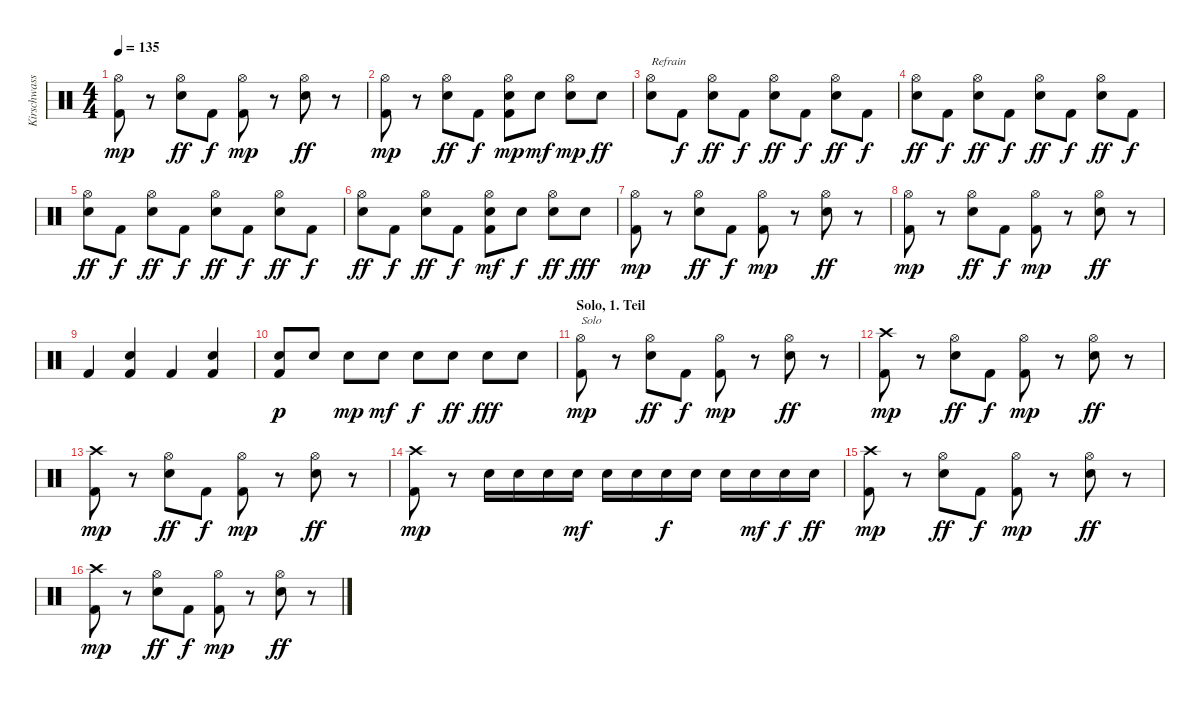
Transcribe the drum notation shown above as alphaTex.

\track ("Kirschwasserkönig" "Kirschwass") {instrument percussion}
\staff {score}
\articulation defaults
\ts (4 4)
\tempo 135
\clef neutral
\ks c
("Hi-Hat (open)" "Kick (hit) 2").8{dy mp} r.8 ("Hi-Hat (open)" "Electric Snare (hit)").8{dy ff} "Kick (hit) 2".8{dy f} ("Hi-Hat (open)" "Kick (hit) 2").8{dy mp} r.8 ("Hi-Hat (open)" "Electric Snare (hit)").8{dy ff} r.8 |
("Hi-Hat (open)" "Kick (hit) 2").8{dy mp} r.8 ("Hi-Hat (open)" "Electric Snare (hit)").8{dy ff} "Kick (hit) 2".8{dy f} ("Hi-Hat (open)" "Kick (hit) 2" "Electric Snare (hit)").8{dy mp} "Electric Snare (hit)".8{dy mf} ("Hi-Hat (open)" "Electric Snare (hit)").8{dy mp} "Electric Snare (hit)".8{dy ff} |
("Hi-Hat (open)" "Electric Snare (hit)").8{txt "Refrain"} "Kick (hit) 2".8{dy f} ("Hi-Hat (open)" "Electric Snare (hit)").8{dy ff} "Kick (hit) 2".8{dy f} ("Hi-Hat (open)" "Electric Snare (hit)").8{dy ff} "Kick (hit) 2".8{dy f} ("Hi-Hat (open)" "Electric Snare (hit)").8{dy ff} "Kick (hit) 2".8{dy f} |
("Hi-Hat (open)" "Electric Snare (hit)").8{dy ff} "Kick (hit) 2".8{dy f} ("Hi-Hat (open)" "Electric Snare (hit)").8{dy ff} "Kick (hit) 2".8{dy f} ("Hi-Hat (open)" "Electric Snare (hit)").8{dy ff} "Kick (hit) 2".8{dy f} ("Hi-Hat (open)" "Electric Snare (hit)").8{dy ff} "Kick (hit) 2".8{dy f} |
("Hi-Hat (open)" "Electric Snare (hit)").8{dy ff} "Kick (hit) 2".8{dy f} ("Hi-Hat (open)" "Electric Snare (hit)").8{dy ff} "Kick (hit) 2".8{dy f} ("Hi-Hat (open)" "Electric Snare (hit)").8{dy ff} "Kick (hit) 2".8{dy f} ("Hi-Hat (open)" "Electric Snare (hit)").8{dy ff} "Kick (hit) 2".8{dy f} |
("Hi-Hat (open)" "Electric Snare (hit)").8{dy ff} "Kick (hit) 2".8{dy f} ("Hi-Hat (open)" "Electric Snare (hit)").8{dy ff} "Kick (hit) 2".8{dy f} ("Hi-Hat (open)" "Kick (hit) 2" "Electric Snare (hit)").8{dy mf} "Electric Snare (hit)".8{dy f} ("Hi-Hat (open)" "Electric Snare (hit)").8{dy ff} "Electric Snare (hit)".8{dy fff} |
("Hi-Hat (open)" "Kick (hit) 2").8{dy mp} r.8 ("Hi-Hat (open)" "Electric Snare (hit)").8{dy ff} "Kick (hit) 2".8{dy f} ("Hi-Hat (open)" "Kick (hit) 2").8{dy mp} r.8 ("Hi-Hat (open)" "Electric Snare (hit)").8{dy ff} r.8 |
("Hi-Hat (open)" "Kick (hit) 2").8{dy mp} r.8 ("Hi-Hat (open)" "Electric Snare (hit)").8{dy ff} "Kick (hit) 2".8{dy f} ("Hi-Hat (open)" "Kick (hit) 2").8{dy mp} r.8 ("Hi-Hat (open)" "Electric Snare (hit)").8{dy ff} r.8 |
"Kick (hit) 2".4 ("Kick (hit) 2" "Electric Snare (hit)").4 "Kick (hit) 2".4 ("Kick (hit) 2" "Electric Snare (hit)").4 |
("Kick (hit) 2" "Electric Snare (hit)").8{dy p volume 13} "Electric Snare (hit)".8 "Electric Snare (hit)".8{dy mp} "Electric Snare (hit)".8{dy mf} "Electric Snare (hit)".8{dy f} "Electric Snare (hit)".8{dy ff} "Electric Snare (hit)".8{dy fff} "Electric Snare (hit)".8 |
\section ("" "Solo, 1. Teil")
("Hi-Hat (open)" "Kick (hit) 2").8{txt "Solo" dy mp} r.8 ("Hi-Hat (open)" "Electric Snare (hit)").8{dy ff} "Kick (hit) 2".8{dy f} ("Hi-Hat (open)" "Kick (hit) 2").8{dy mp} r.8 ("Hi-Hat (open)" "Electric Snare (hit)").8{dy ff} r.8 |
("Crash high (hit)" "Kick (hit) 2").8{dy mp} r.8 ("Hi-Hat (open)" "Electric Snare (hit)").8{dy ff} "Kick (hit) 2".8{dy f} ("Hi-Hat (open)" "Kick (hit) 2").8{dy mp} r.8 ("Hi-Hat (open)" "Electric Snare (hit)").8{dy ff} r.8 |
("Crash high (hit)" "Kick (hit) 2").8{dy mp} r.8 ("Hi-Hat (open)" "Electric Snare (hit)").8{dy ff} "Kick (hit) 2".8{dy f} ("Hi-Hat (open)" "Kick (hit) 2").8{dy mp} r.8 ("Hi-Hat (open)" "Electric Snare (hit)").8{dy ff} r.8 |
("Crash high (hit)" "Kick (hit) 2").8{dy mp} r.8 "Electric Snare (hit)".16 "Electric Snare (hit)".16 "Electric Snare (hit)".16 "Electric Snare (hit)".16{dy mf} "Electric Snare (hit)".16 "Electric Snare (hit)".16 "Electric Snare (hit)".16{dy f} "Electric Snare (hit)".16 "Electric Snare (hit)".16 "Electric Snare (hit)".16{dy mf} "Electric Snare (hit)".16{dy f} "Electric Snare (hit)".16{dy ff} |
("Crash high (hit)" "Kick (hit) 2").8{dy mp} r.8 ("Hi-Hat (open)" "Electric Snare (hit)").8{dy ff} "Kick (hit) 2".8{dy f} ("Hi-Hat (open)" "Kick (hit) 2").8{dy mp} r.8 ("Hi-Hat (open)" "Electric Snare (hit)").8{dy ff} r.8 |
("Crash high (hit)" "Kick (hit) 2").8{dy mp} r.8 ("Hi-Hat (open)" "Electric Snare (hit)").8{dy ff} "Kick (hit) 2".8{dy f} ("Hi-Hat (open)" "Kick (hit) 2").8{dy mp} r.8 ("Hi-Hat (open)" "Electric Snare (hit)").8{dy ff} r.8
